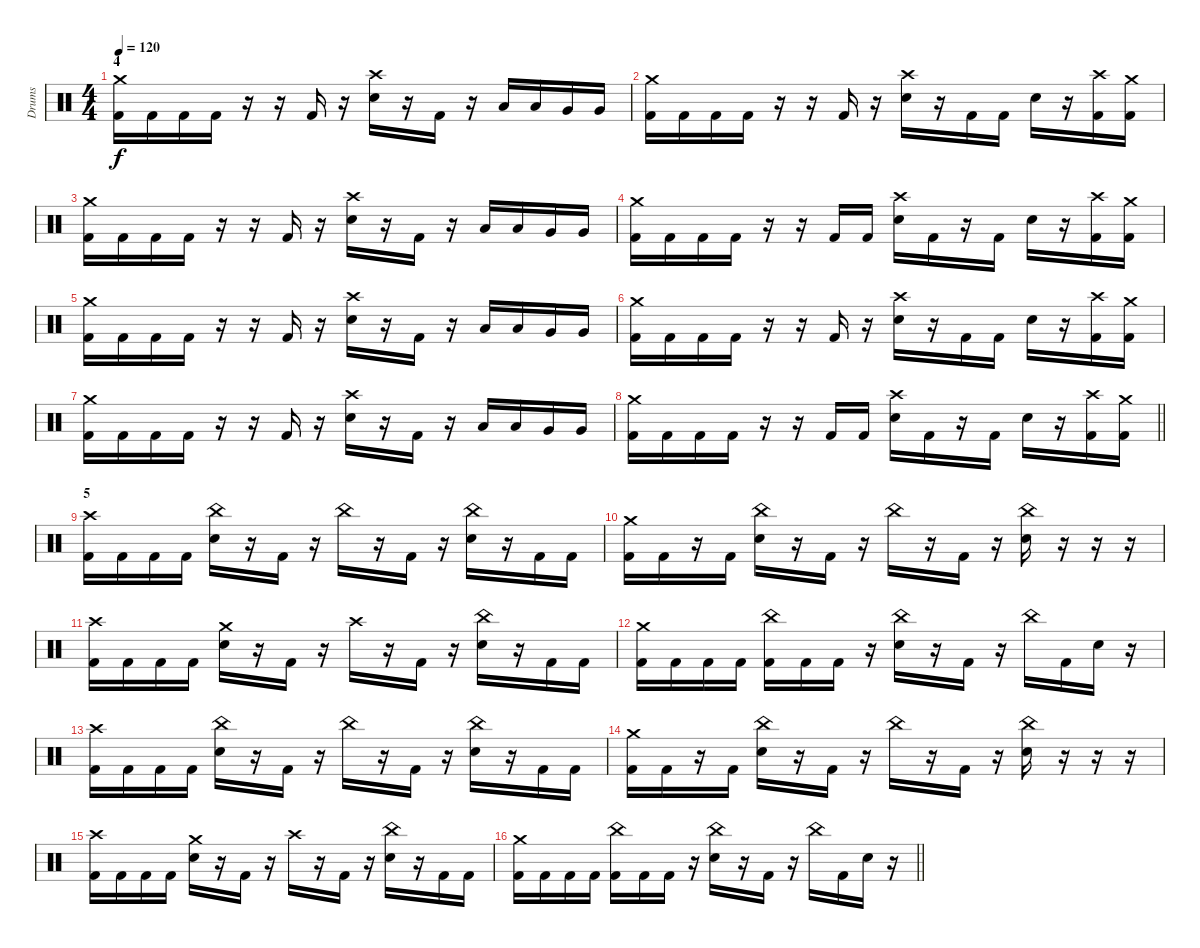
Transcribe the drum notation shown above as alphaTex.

\track ("Drums" "Drums") {instrument percussion}
\staff {score}
\articulation defaults
\ts (4 4)
\section ("" "4")
\tempo 120
\clef neutral
\ks aminor
("Crash medium (hit)" "Kick (hit) 2").16{dy f} "Kick (hit) 2".16 "Kick (hit) 2".16 "Kick (hit) 2".16 r.16 r.16 "Kick (hit) 2".16 r.16 ("Crash high (hit)" "Electric Snare (hit)").16 r.16 "Kick (hit) 2".16 r.16 "Low Floor Tom (hit)".16 "Low Floor Tom (hit)".16 "Very Low Tom (hit)".16 "Very Low Tom (hit)".16 |
("Crash medium (hit)" "Kick (hit) 2").16 "Kick (hit) 2".16 "Kick (hit) 2".16 "Kick (hit) 2".16 r.16 r.16 "Kick (hit) 2".16 r.16 ("Crash high (hit)" "Electric Snare (hit)").16 r.16 "Kick (hit) 2".16 "Kick (hit) 2".16 "Electric Snare (hit)".16 r.16 ("Crash high (hit)" "Kick (hit) 2").16 ("Crash medium (hit)" "Kick (hit) 2").16 |
("Crash medium (hit)" "Kick (hit) 2").16 "Kick (hit) 2".16 "Kick (hit) 2".16 "Kick (hit) 2".16 r.16 r.16 "Kick (hit) 2".16 r.16 ("Crash high (hit)" "Electric Snare (hit)").16 r.16 "Kick (hit) 2".16 r.16 "Low Floor Tom (hit)".16 "Low Floor Tom (hit)".16 "Very Low Tom (hit)".16 "Very Low Tom (hit)".16 |
("Crash medium (hit)" "Kick (hit) 2").16 "Kick (hit) 2".16 "Kick (hit) 2".16 "Kick (hit) 2".16 r.16 r.16 "Kick (hit) 2".16 "Kick (hit) 2".16 ("Crash high (hit)" "Electric Snare (hit)").16 "Kick (hit) 2".16 r.16 "Kick (hit) 2".16 "Electric Snare (hit)".16 r.16 ("Crash high (hit)" "Kick (hit) 2").16 ("Crash medium (hit)" "Kick (hit) 2").16 |
("Crash medium (hit)" "Kick (hit) 2").16 "Kick (hit) 2".16 "Kick (hit) 2".16 "Kick (hit) 2".16 r.16 r.16 "Kick (hit) 2".16 r.16 ("Crash high (hit)" "Electric Snare (hit)").16 r.16 "Kick (hit) 2".16 r.16 "Low Floor Tom (hit)".16 "Low Floor Tom (hit)".16 "Very Low Tom (hit)".16 "Very Low Tom (hit)".16 |
("Crash medium (hit)" "Kick (hit) 2").16 "Kick (hit) 2".16 "Kick (hit) 2".16 "Kick (hit) 2".16 r.16 r.16 "Kick (hit) 2".16 r.16 ("Crash high (hit)" "Electric Snare (hit)").16 r.16 "Kick (hit) 2".16 "Kick (hit) 2".16 "Electric Snare (hit)".16 r.16 ("Crash high (hit)" "Kick (hit) 2").16 ("Crash medium (hit)" "Kick (hit) 2").16 |
("Crash medium (hit)" "Kick (hit) 2").16 "Kick (hit) 2".16 "Kick (hit) 2".16 "Kick (hit) 2".16 r.16 r.16 "Kick (hit) 2".16 r.16 ("Crash high (hit)" "Electric Snare (hit)").16 r.16 "Kick (hit) 2".16 r.16 "Low Floor Tom (hit)".16 "Low Floor Tom (hit)".16 "Very Low Tom (hit)".16 "Very Low Tom (hit)".16 |
\barLineRight lightlight
("Crash medium (hit)" "Kick (hit) 2").16 "Kick (hit) 2".16 "Kick (hit) 2".16 "Kick (hit) 2".16 r.16 r.16 "Kick (hit) 2".16 "Kick (hit) 2".16 ("Crash high (hit)" "Electric Snare (hit)").16 "Kick (hit) 2".16 r.16 "Kick (hit) 2".16 "Electric Snare (hit)".16 r.16 ("Crash high (hit)" "Kick (hit) 2").16 ("Crash medium (hit)" "Kick (hit) 2").16 |
\section ("" "5")
("Crash high (hit)" "Kick (hit) 2").16 "Kick (hit) 2".16 "Kick (hit) 2".16 "Kick (hit) 2".16 ("China (hit)" "Electric Snare (hit)").16 r.16 "Kick (hit) 2".16 r.16 "China (hit)".16 r.16 "Kick (hit) 2".16 r.16 ("China (hit)" "Electric Snare (hit)").16 r.16 "Kick (hit) 2".16 "Kick (hit) 2".16 |
("Crash medium (hit)" "Kick (hit) 2").16 "Kick (hit) 2".16 r.16 "Kick (hit) 2".16 ("China (hit)" "Electric Snare (hit)").16 r.16 "Kick (hit) 2".16 r.16 "China (hit)".16 r.16 "Kick (hit) 2".16 r.16 ("China (hit)" "Electric Snare (hit)").16 r.16 r.16 r.16 |
("Crash high (hit)" "Kick (hit) 2").16 "Kick (hit) 2".16 "Kick (hit) 2".16 "Kick (hit) 2".16 ("Crash medium (hit)" "Electric Snare (hit)").16 r.16 "Kick (hit) 2".16 r.16 "Crash high (hit)".16 r.16 "Kick (hit) 2".16 r.16 ("China (hit)" "Electric Snare (hit)").16 r.16 "Kick (hit) 2".16 "Kick (hit) 2".16 |
("Crash medium (hit)" "Kick (hit) 2").16 "Kick (hit) 2".16 "Kick (hit) 2".16 "Kick (hit) 2".16 ("China (hit)" "Kick (hit) 2").16 "Kick (hit) 2".16 "Kick (hit) 2".16 r.16 ("China (hit)" "Electric Snare (hit)").16 r.16 "Kick (hit) 2".16 r.16 "China (hit)".16 "Kick (hit) 2".16 "Electric Snare (hit)".16 r.16 |
("Crash high (hit)" "Kick (hit) 2").16 "Kick (hit) 2".16 "Kick (hit) 2".16 "Kick (hit) 2".16 ("China (hit)" "Electric Snare (hit)").16 r.16 "Kick (hit) 2".16 r.16 "China (hit)".16 r.16 "Kick (hit) 2".16 r.16 ("China (hit)" "Electric Snare (hit)").16 r.16 "Kick (hit) 2".16 "Kick (hit) 2".16 |
("Crash medium (hit)" "Kick (hit) 2").16 "Kick (hit) 2".16 r.16 "Kick (hit) 2".16 ("China (hit)" "Electric Snare (hit)").16 r.16 "Kick (hit) 2".16 r.16 "China (hit)".16 r.16 "Kick (hit) 2".16 r.16 ("China (hit)" "Electric Snare (hit)").16 r.16 r.16 r.16 |
("Crash high (hit)" "Kick (hit) 2").16 "Kick (hit) 2".16 "Kick (hit) 2".16 "Kick (hit) 2".16 ("Crash medium (hit)" "Electric Snare (hit)").16 r.16 "Kick (hit) 2".16 r.16 "Crash high (hit)".16 r.16 "Kick (hit) 2".16 r.16 ("China (hit)" "Electric Snare (hit)").16 r.16 "Kick (hit) 2".16 "Kick (hit) 2".16 |
\barLineRight lightlight
("Crash medium (hit)" "Kick (hit) 2").16 "Kick (hit) 2".16 "Kick (hit) 2".16 "Kick (hit) 2".16 ("China (hit)" "Kick (hit) 2").16 "Kick (hit) 2".16 "Kick (hit) 2".16 r.16 ("China (hit)" "Electric Snare (hit)").16 r.16 "Kick (hit) 2".16 r.16 "China (hit)".16 "Kick (hit) 2".16 "Electric Snare (hit)".16 r.16
